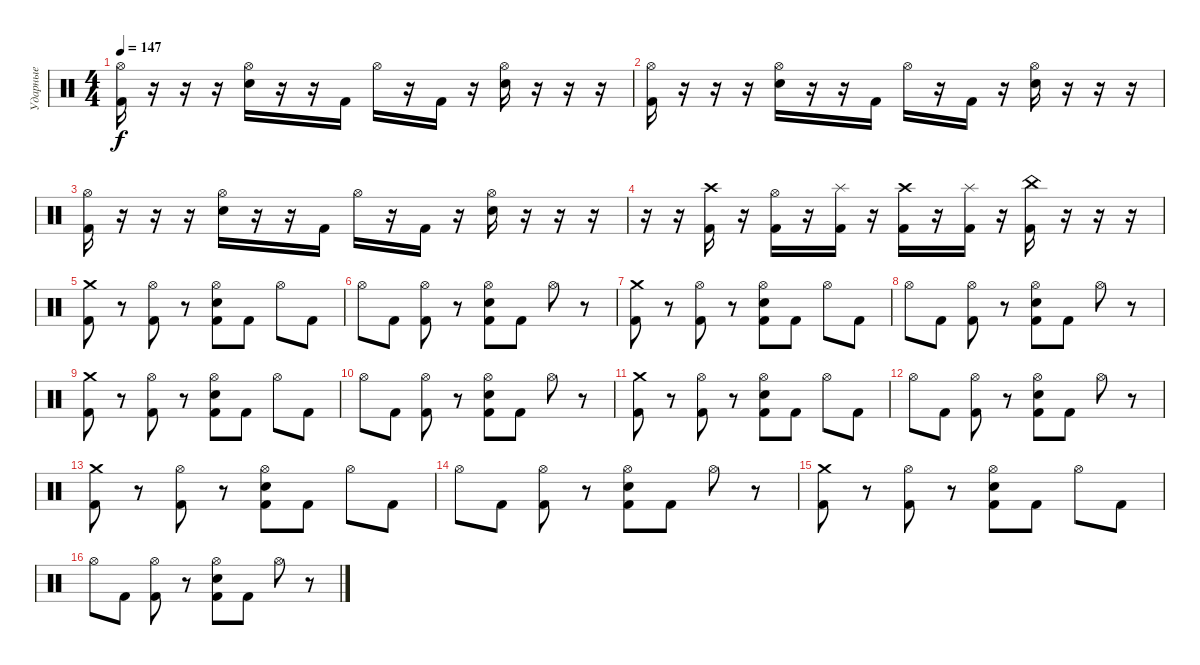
\track ("Ударные" "Ударные") {instrument percussion}
\staff {score}
\articulation defaults
\ts (4 4)
\tempo 147
\clef neutral
\ks c
("Hi-Hat (open)" "Kick (hit) 2").16{dy f} r.16 r.16 r.16 ("Hi-Hat (open)" "Electric Snare (hit)").16 r.16 r.16 "Kick (hit) 2".16 "Hi-Hat (open)".16 r.16 "Kick (hit) 2".16 r.16 ("Hi-Hat (open)" "Electric Snare (hit)").16 r.16 r.16 r.16 |
("Hi-Hat (open)" "Kick (hit) 2").16 r.16 r.16 r.16 ("Hi-Hat (open)" "Electric Snare (hit)").16 r.16 r.16 "Kick (hit) 2".16 "Hi-Hat (open)".16 r.16 "Kick (hit) 2".16 r.16 ("Hi-Hat (open)" "Electric Snare (hit)").16 r.16 r.16 r.16 |
("Hi-Hat (open)" "Kick (hit) 2").16 r.16 r.16 r.16 ("Hi-Hat (open)" "Electric Snare (hit)").16 r.16 r.16 "Kick (hit) 2".16 "Hi-Hat (open)".16 r.16 "Kick (hit) 2".16 r.16 ("Hi-Hat (open)" "Electric Snare (hit)").16 r.16 r.16 r.16 |
r.16 r.16 ("Crash high (hit)" "Kick (hit) 2").16 r.16 ("Hi-Hat (open)" "Kick (hit) 2").16 r.16 ("Splash (hit)" "Kick (hit) 2").16 r.16 ("Crash high (hit)" "Kick (hit) 2").16 r.16 ("Splash (hit)" "Kick (hit) 2").16 r.16 ("China (hit)" "Kick (hit) 2").16 r.16 r.16 r.16 |
("Crash medium (hit)" "Kick (hit) 2").8 r.8 ("Hi-Hat (open)" "Kick (hit) 2").8 r.8 ("Hi-Hat (open)" "Electric Snare (hit)" "Kick (hit) 2").8 "Kick (hit) 2".8 "Hi-Hat (open)".8 "Kick (hit) 2".8 |
"Hi-Hat (open)".8 "Kick (hit) 2".8 ("Hi-Hat (open)" "Kick (hit) 2").8 r.8 ("Hi-Hat (open)" "Electric Snare (hit)" "Kick (hit) 2").8 "Kick (hit) 2".8 "Hi-Hat (open)".8 r.8 |
("Crash medium (hit)" "Kick (hit) 2").8 r.8 ("Hi-Hat (open)" "Kick (hit) 2").8 r.8 ("Hi-Hat (open)" "Electric Snare (hit)" "Kick (hit) 2").8 "Kick (hit) 2".8 "Hi-Hat (open)".8 "Kick (hit) 2".8 |
"Hi-Hat (open)".8 "Kick (hit) 2".8 ("Hi-Hat (open)" "Kick (hit) 2").8 r.8 ("Hi-Hat (open)" "Electric Snare (hit)" "Kick (hit) 2").8 "Kick (hit) 2".8 "Hi-Hat (open)".8 r.8 |
("Crash medium (hit)" "Kick (hit) 2").8 r.8 ("Hi-Hat (open)" "Kick (hit) 2").8 r.8 ("Hi-Hat (open)" "Electric Snare (hit)" "Kick (hit) 2").8 "Kick (hit) 2".8 "Hi-Hat (open)".8 "Kick (hit) 2".8 |
"Hi-Hat (open)".8 "Kick (hit) 2".8 ("Hi-Hat (open)" "Kick (hit) 2").8 r.8 ("Hi-Hat (open)" "Electric Snare (hit)" "Kick (hit) 2").8 "Kick (hit) 2".8 "Hi-Hat (open)".8 r.8 |
("Crash medium (hit)" "Kick (hit) 2").8 r.8 ("Hi-Hat (open)" "Kick (hit) 2").8 r.8 ("Hi-Hat (open)" "Electric Snare (hit)" "Kick (hit) 2").8 "Kick (hit) 2".8 "Hi-Hat (open)".8 "Kick (hit) 2".8 |
"Hi-Hat (open)".8 "Kick (hit) 2".8 ("Hi-Hat (open)" "Kick (hit) 2").8 r.8 ("Hi-Hat (open)" "Electric Snare (hit)" "Kick (hit) 2").8 "Kick (hit) 2".8 "Hi-Hat (open)".8 r.8 |
("Crash medium (hit)" "Kick (hit) 2").8 r.8 ("Hi-Hat (open)" "Kick (hit) 2").8 r.8 ("Hi-Hat (open)" "Electric Snare (hit)" "Kick (hit) 2").8 "Kick (hit) 2".8 "Hi-Hat (open)".8 "Kick (hit) 2".8 |
"Hi-Hat (open)".8 "Kick (hit) 2".8 ("Hi-Hat (open)" "Kick (hit) 2").8 r.8 ("Hi-Hat (open)" "Electric Snare (hit)" "Kick (hit) 2").8 "Kick (hit) 2".8 "Hi-Hat (open)".8 r.8 |
("Crash medium (hit)" "Kick (hit) 2").8 r.8 ("Hi-Hat (open)" "Kick (hit) 2").8 r.8 ("Hi-Hat (open)" "Electric Snare (hit)" "Kick (hit) 2").8 "Kick (hit) 2".8 "Hi-Hat (open)".8 "Kick (hit) 2".8 |
"Hi-Hat (open)".8 "Kick (hit) 2".8 ("Hi-Hat (open)" "Kick (hit) 2").8 r.8 ("Hi-Hat (open)" "Electric Snare (hit)" "Kick (hit) 2").8 "Kick (hit) 2".8 "Hi-Hat (open)".8 r.8
